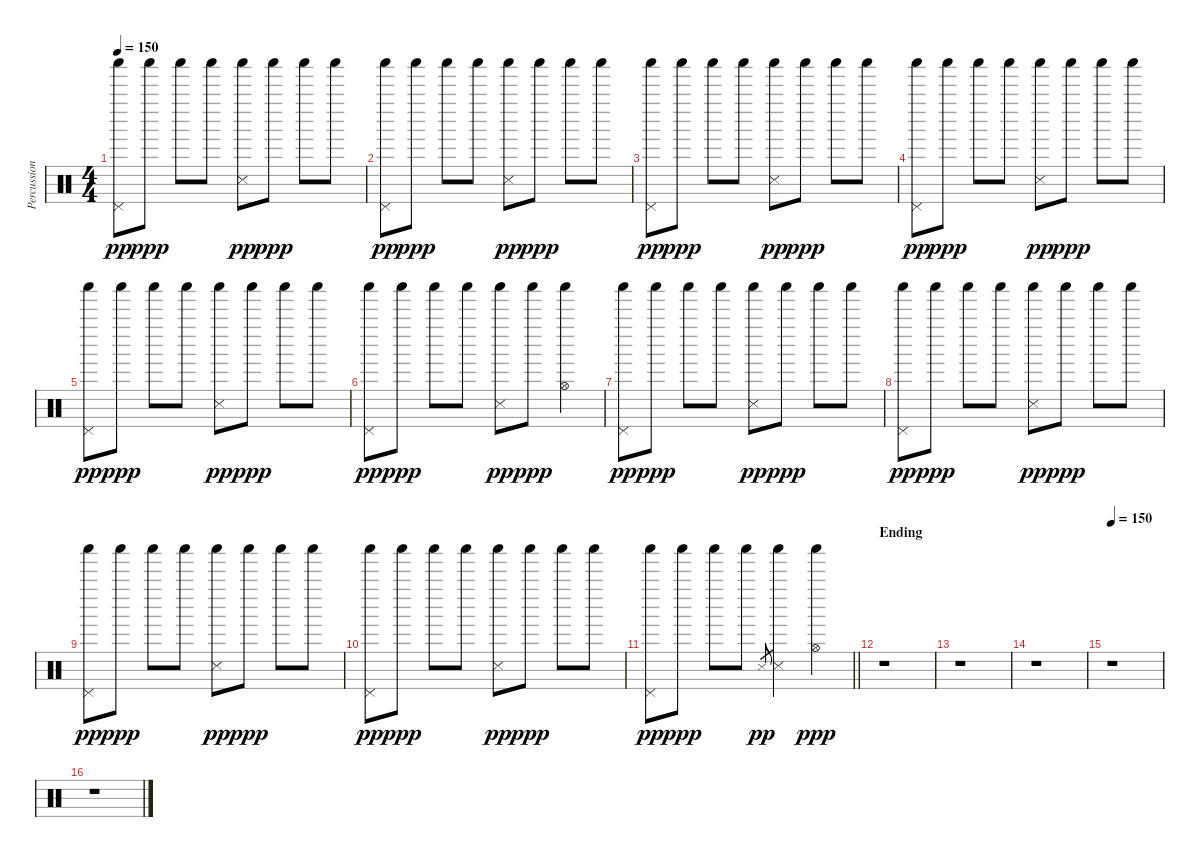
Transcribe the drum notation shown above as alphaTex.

\track ("Percussion" "Percussion") {instrument percussion}
\staff {score}
\articulation defaults
\ts (4 4)
\tempo 150
\clef neutral
\ks c
("Pedal Hi-Hat (hit)" "Shaker (hit)").8{dy pp} "Shaker (hit)".8{dy ppp} "Shaker (hit)".8 "Shaker (hit)".8 ("Snare (side stick) 3" "Shaker (hit)").8{dy pp} "Shaker (hit)".8{dy ppp} "Shaker (hit)".8 "Shaker (hit)".8 |
("Pedal Hi-Hat (hit)" "Shaker (hit)").8{dy pp} "Shaker (hit)".8{dy ppp} "Shaker (hit)".8 "Shaker (hit)".8 ("Snare (side stick) 3" "Shaker (hit)").8{dy pp} "Shaker (hit)".8{dy ppp} "Shaker (hit)".8 "Shaker (hit)".8 |
("Pedal Hi-Hat (hit)" "Shaker (hit)").8{dy pp} "Shaker (hit)".8{dy ppp} "Shaker (hit)".8 "Shaker (hit)".8 ("Snare (side stick) 3" "Shaker (hit)").8{dy pp} "Shaker (hit)".8{dy ppp} "Shaker (hit)".8 "Shaker (hit)".8 |
("Pedal Hi-Hat (hit)" "Shaker (hit)").8{dy pp} "Shaker (hit)".8{dy ppp} "Shaker (hit)".8 "Shaker (hit)".8 ("Snare (side stick) 3" "Shaker (hit)").8{dy pp} "Shaker (hit)".8{dy ppp} "Shaker (hit)".8 "Shaker (hit)".8 |
("Pedal Hi-Hat (hit)" "Shaker (hit)").8{dy pp} "Shaker (hit)".8{dy ppp} "Shaker (hit)".8 "Shaker (hit)".8 ("Snare (side stick) 3" "Shaker (hit)").8{dy pp} "Shaker (hit)".8{dy ppp} "Shaker (hit)".8 "Shaker (hit)".8 |
("Pedal Hi-Hat (hit)" "Shaker (hit)").8{dy pp} "Shaker (hit)".8{dy ppp} "Shaker (hit)".8 "Shaker (hit)".8 ("Snare (side stick) 3" "Shaker (hit)").8{dy pp} "Shaker (hit)".8{dy ppp} ("Hi-Hat (open)" "Shaker (hit)").4 |
("Pedal Hi-Hat (hit)" "Shaker (hit)").8{dy pp} "Shaker (hit)".8{dy ppp} "Shaker (hit)".8 "Shaker (hit)".8 ("Snare (side stick) 3" "Shaker (hit)").8{dy pp} "Shaker (hit)".8{dy ppp} "Shaker (hit)".8 "Shaker (hit)".8 |
("Pedal Hi-Hat (hit)" "Shaker (hit)").8{dy pp} "Shaker (hit)".8{dy ppp} "Shaker (hit)".8 "Shaker (hit)".8 ("Snare (side stick) 3" "Shaker (hit)").8{dy pp} "Shaker (hit)".8{dy ppp} "Shaker (hit)".8 "Shaker (hit)".8 |
("Pedal Hi-Hat (hit)" "Shaker (hit)").8{dy pp} "Shaker (hit)".8{dy ppp} "Shaker (hit)".8 "Shaker (hit)".8 ("Snare (side stick) 3" "Shaker (hit)").8{dy pp} "Shaker (hit)".8{dy ppp} "Shaker (hit)".8 "Shaker (hit)".8 |
("Pedal Hi-Hat (hit)" "Shaker (hit)").8{dy pp} "Shaker (hit)".8{dy ppp} "Shaker (hit)".8 "Shaker (hit)".8 ("Snare (side stick) 3" "Shaker (hit)").8{dy pp} "Shaker (hit)".8{dy ppp} "Shaker (hit)".8 "Shaker (hit)".8 |
\barLineRight lightlight
("Pedal Hi-Hat (hit)" "Shaker (hit)").8{dy pp} "Shaker (hit)".8{dy ppp} "Shaker (hit)".8 "Shaker (hit)".8 "Snare (side stick) 3".8{gr dy pp} ("Snare (side stick) 3" "Shaker (hit)").4 ("Hi-Hat (open)" "Shaker (hit)").4{dy ppp} |
\section ("" "Ending")
r.1 |
r.1 |
r.1 |
\tempo 150
r.1 |
r.1
